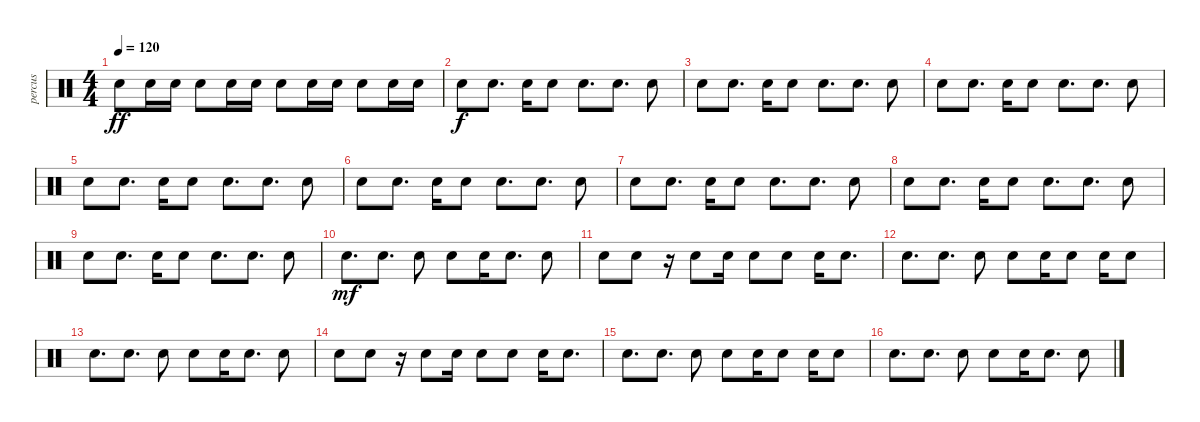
\track ("percus" "percus") {instrument percussion}
\staff {score}
\articulation defaults
\ts (4 4)
\tempo 120
\clef neutral
\ks c "Snare (hit)".8{dy ff volume 15} "Snare (hit)".16{volume 15} "Snare (hit)".16 "Snare (hit)".8 "Snare (hit)".16{volume 15} "Snare (hit)".16{volume 15} "Snare (hit)".8 "Snare (hit)".16{volume 16} "Snare (hit)".16 "Snare (hit)".8{volume 16} "Snare (hit)".16{volume 16} "Snare (hit)".16
|
"Snare (hit)".8{dy f volume 16} "Snare (hit)".8{d} "Snare (hit)".16 "Snare (hit)".8 "Snare (hit)".8{d} "Snare (hit)".8{d} "Snare (hit)".8 |
"Snare (hit)".8 "Snare (hit)".8{d} "Snare (hit)".16 "Snare (hit)".8 "Snare (hit)".8{d} "Snare (hit)".8{d} "Snare (hit)".8 |
"Snare (hit)".8 "Snare (hit)".8{d} "Snare (hit)".16 "Snare (hit)".8 "Snare (hit)".8{d} "Snare (hit)".8{d} "Snare (hit)".8 |
"Snare (hit)".8 "Snare (hit)".8{d} "Snare (hit)".16 "Snare (hit)".8 "Snare (hit)".8{d} "Snare (hit)".8{d} "Snare (hit)".8 |
"Snare (hit)".8 "Snare (hit)".8{d} "Snare (hit)".16 "Snare (hit)".8 "Snare (hit)".8{d} "Snare (hit)".8{d} "Snare (hit)".8 |
"Snare (hit)".8 "Snare (hit)".8{d} "Snare (hit)".16 "Snare (hit)".8 "Snare (hit)".8{d} "Snare (hit)".8{d} "Snare (hit)".8 |
"Snare (hit)".8 "Snare (hit)".8{d} "Snare (hit)".16 "Snare (hit)".8 "Snare (hit)".8{d} "Snare (hit)".8{d} "Snare (hit)".8 |
"Snare (hit)".8 "Snare (hit)".8{d} "Snare (hit)".16 "Snare (hit)".8 "Snare (hit)".8{d} "Snare (hit)".8{d} "Snare (hit)".8 |
"Snare (hit)".8{d dy mf} "Snare (hit)".8{d} "Snare (hit)".8 "Snare (hit)".8 "Snare (hit)".16 "Snare (hit)".8{d} "Snare (hit)".8 |
"Snare (hit)".8 "Snare (hit)".8 r.16 "Snare (hit)".8 "Snare (hit)".16 "Snare (hit)".8 "Snare (hit)".8 "Snare (hit)".16 "Snare (hit)".8{d} |
"Snare (hit)".8{d} "Snare (hit)".8{d} "Snare (hit)".8 "Snare (hit)".8 "Snare (hit)".16 "Snare (hit)".8 "Snare (hit)".16 "Snare (hit)".8 |
"Snare (hit)".8{d} "Snare (hit)".8{d} "Snare (hit)".8 "Snare (hit)".8 "Snare (hit)".16 "Snare (hit)".8{d} "Snare (hit)".8 |
"Snare (hit)".8 "Snare (hit)".8 r.16 "Snare (hit)".8 "Snare (hit)".16 "Snare (hit)".8 "Snare (hit)".8 "Snare (hit)".16 "Snare (hit)".8{d} |
"Snare (hit)".8{d} "Snare (hit)".8{d} "Snare (hit)".8 "Snare (hit)".8 "Snare (hit)".16 "Snare (hit)".8 "Snare (hit)".16 "Snare (hit)".8 |
"Snare (hit)".8{d} "Snare (hit)".8{d} "Snare (hit)".8 "Snare (hit)".8 "Snare (hit)".16 "Snare (hit)".8{d} "Snare (hit)".8
